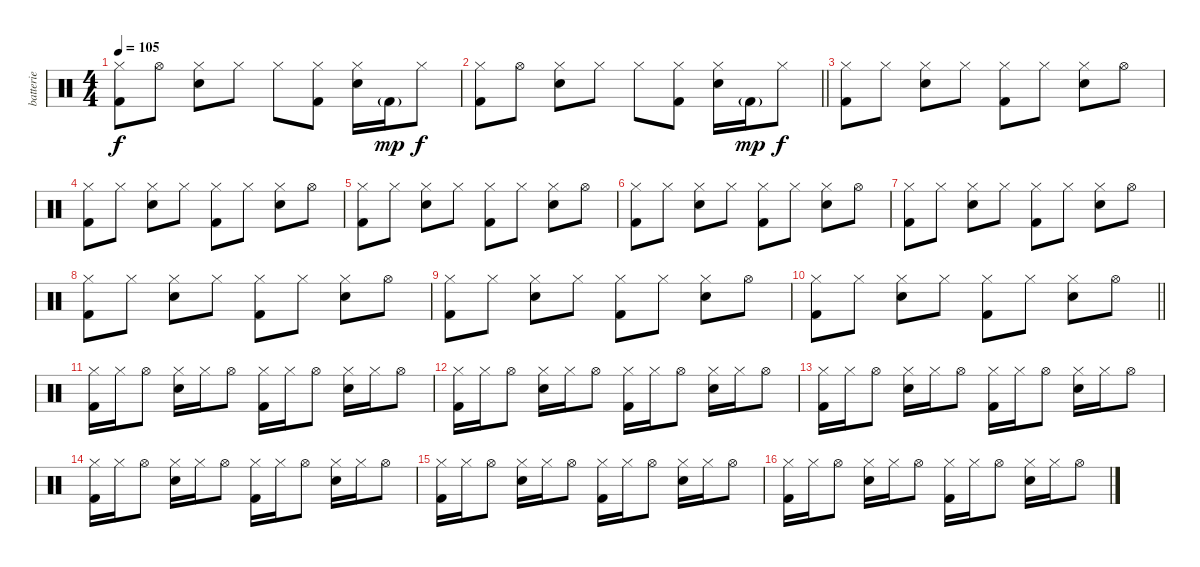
\track ("batterie" "batterie") {instrument percussion}
\staff {score}
\articulation defaults
\ts (4 4)
\tempo 105
\clef neutral
\ks c
("Hi-Hat (closed)" "Kick (hit) 2").8{dy f} "Hi-Hat (open)".8 ("Hi-Hat (closed)" "Snare (hit) 2").8 "Hi-Hat (closed)".8 "Hi-Hat (closed)".8 ("Hi-Hat (closed)" "Kick (hit) 2").8 ("Hi-Hat (closed)" "Snare (hit) 2").16 "Kick (hit) 2"{g}.16{dy mp} "Hi-Hat (closed)".8{dy f} |
\barLineRight lightlight
("Hi-Hat (closed)" "Kick (hit) 2").8 "Hi-Hat (open)".8 ("Hi-Hat (closed)" "Snare (hit) 2").8 "Hi-Hat (closed)".8 "Hi-Hat (closed)".8 ("Hi-Hat (closed)" "Kick (hit) 2").8 ("Hi-Hat (closed)" "Snare (hit) 2").16 "Kick (hit) 2"{g}.16{dy mp} "Hi-Hat (closed)".8{dy f} |
("Hi-Hat (closed)" "Kick (hit) 2").8 "Hi-Hat (closed)".8 ("Hi-Hat (closed)" "Snare (hit) 2").8 "Hi-Hat (closed)".8 ("Hi-Hat (closed)" "Kick (hit) 2").8 "Hi-Hat (closed)".8 ("Hi-Hat (closed)" "Snare (hit) 2").8 "Hi-Hat (open)".8 |
("Hi-Hat (closed)" "Kick (hit) 2").8 "Hi-Hat (closed)".8 ("Hi-Hat (closed)" "Snare (hit) 2").8 "Hi-Hat (closed)".8 ("Hi-Hat (closed)" "Kick (hit) 2").8 "Hi-Hat (closed)".8 ("Hi-Hat (closed)" "Snare (hit) 2").8 "Hi-Hat (open)".8 |
("Hi-Hat (closed)" "Kick (hit) 2").8 "Hi-Hat (closed)".8 ("Hi-Hat (closed)" "Snare (hit) 2").8 "Hi-Hat (closed)".8 ("Hi-Hat (closed)" "Kick (hit) 2").8 "Hi-Hat (closed)".8 ("Hi-Hat (closed)" "Snare (hit) 2").8 "Hi-Hat (open)".8 |
("Hi-Hat (closed)" "Kick (hit) 2").8 "Hi-Hat (closed)".8 ("Hi-Hat (closed)" "Snare (hit) 2").8 "Hi-Hat (closed)".8 ("Hi-Hat (closed)" "Kick (hit) 2").8 "Hi-Hat (closed)".8 ("Hi-Hat (closed)" "Snare (hit) 2").8 "Hi-Hat (open)".8 |
("Hi-Hat (closed)" "Kick (hit) 2").8 "Hi-Hat (closed)".8 ("Hi-Hat (closed)" "Snare (hit) 2").8 "Hi-Hat (closed)".8 ("Hi-Hat (closed)" "Kick (hit) 2").8 "Hi-Hat (closed)".8 ("Hi-Hat (closed)" "Snare (hit) 2").8 "Hi-Hat (open)".8 |
("Hi-Hat (closed)" "Kick (hit) 2").8 "Hi-Hat (closed)".8 ("Hi-Hat (closed)" "Snare (hit) 2").8 "Hi-Hat (closed)".8 ("Hi-Hat (closed)" "Kick (hit) 2").8 "Hi-Hat (closed)".8 ("Hi-Hat (closed)" "Snare (hit) 2").8 "Hi-Hat (open)".8 |
("Hi-Hat (closed)" "Kick (hit) 2").8 "Hi-Hat (closed)".8 ("Hi-Hat (closed)" "Snare (hit) 2").8 "Hi-Hat (closed)".8 ("Hi-Hat (closed)" "Kick (hit) 2").8 "Hi-Hat (closed)".8 ("Hi-Hat (closed)" "Snare (hit) 2").8 "Hi-Hat (open)".8 |
\barLineRight lightlight
("Hi-Hat (closed)" "Kick (hit) 2").8 "Hi-Hat (closed)".8 ("Hi-Hat (closed)" "Snare (hit) 2").8 "Hi-Hat (closed)".8 ("Hi-Hat (closed)" "Kick (hit) 2").8 "Hi-Hat (closed)".8 ("Hi-Hat (closed)" "Snare (hit) 2").8 "Hi-Hat (open)".8 |
("Hi-Hat (closed)" "Kick (hit) 2").16 "Hi-Hat (closed)".16 "Hi-Hat (open)".8 ("Hi-Hat (closed)" "Snare (hit) 2").16 "Hi-Hat (closed)".16 "Hi-Hat (open)".8 ("Hi-Hat (closed)" "Kick (hit) 2").16 "Hi-Hat (closed)".16 "Hi-Hat (open)".8 ("Hi-Hat (closed)" "Snare (hit) 2").16 "Hi-Hat (closed)".16 "Hi-Hat (open)".8 |
("Hi-Hat (closed)" "Kick (hit) 2").16 "Hi-Hat (closed)".16 "Hi-Hat (open)".8 ("Hi-Hat (closed)" "Snare (hit) 2").16 "Hi-Hat (closed)".16 "Hi-Hat (open)".8 ("Hi-Hat (closed)" "Kick (hit) 2").16 "Hi-Hat (closed)".16 "Hi-Hat (open)".8 ("Hi-Hat (closed)" "Snare (hit) 2").16 "Hi-Hat (closed)".16 "Hi-Hat (open)".8 |
("Hi-Hat (closed)" "Kick (hit) 2").16 "Hi-Hat (closed)".16 "Hi-Hat (open)".8 ("Hi-Hat (closed)" "Snare (hit) 2").16 "Hi-Hat (closed)".16 "Hi-Hat (open)".8 ("Hi-Hat (closed)" "Kick (hit) 2").16 "Hi-Hat (closed)".16 "Hi-Hat (open)".8 ("Hi-Hat (closed)" "Snare (hit) 2").16 "Hi-Hat (closed)".16 "Hi-Hat (open)".8 |
("Hi-Hat (closed)" "Kick (hit) 2").16 "Hi-Hat (closed)".16 "Hi-Hat (open)".8 ("Hi-Hat (closed)" "Snare (hit) 2").16 "Hi-Hat (closed)".16 "Hi-Hat (open)".8 ("Hi-Hat (closed)" "Kick (hit) 2").16 "Hi-Hat (closed)".16 "Hi-Hat (open)".8 ("Hi-Hat (closed)" "Snare (hit) 2").16 "Hi-Hat (closed)".16 "Hi-Hat (open)".8 |
("Hi-Hat (closed)" "Kick (hit) 2").16 "Hi-Hat (closed)".16 "Hi-Hat (open)".8 ("Hi-Hat (closed)" "Snare (hit) 2").16 "Hi-Hat (closed)".16 "Hi-Hat (open)".8 ("Hi-Hat (closed)" "Kick (hit) 2").16 "Hi-Hat (closed)".16 "Hi-Hat (open)".8 ("Hi-Hat (closed)" "Snare (hit) 2").16 "Hi-Hat (closed)".16 "Hi-Hat (open)".8 |
("Hi-Hat (closed)" "Kick (hit) 2").16 "Hi-Hat (closed)".16 "Hi-Hat (open)".8 ("Hi-Hat (closed)" "Snare (hit) 2").16 "Hi-Hat (closed)".16 "Hi-Hat (open)".8 ("Hi-Hat (closed)" "Kick (hit) 2").16 "Hi-Hat (closed)".16 "Hi-Hat (open)".8 ("Hi-Hat (closed)" "Snare (hit) 2").16 "Hi-Hat (closed)".16 "Hi-Hat (open)".8
